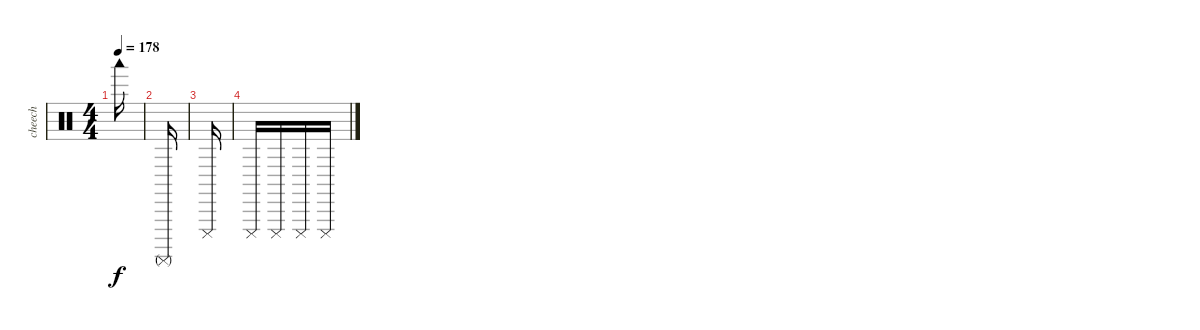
\track ("cheech" "cheech") {solo instrument percussion}
\staff {score}
\articulation defaults
\ts (4 4)
\tempo 178
\clef neutral
\ks c "Woodblock low (hit)".16{dy f}
|
"Surdo (mute)".16 |
"Cuica (mute)".16 |
"Cuica (mute)".16 "Cuica (mute)".16 "Cuica (mute)".16 "Cuica (mute)".16
